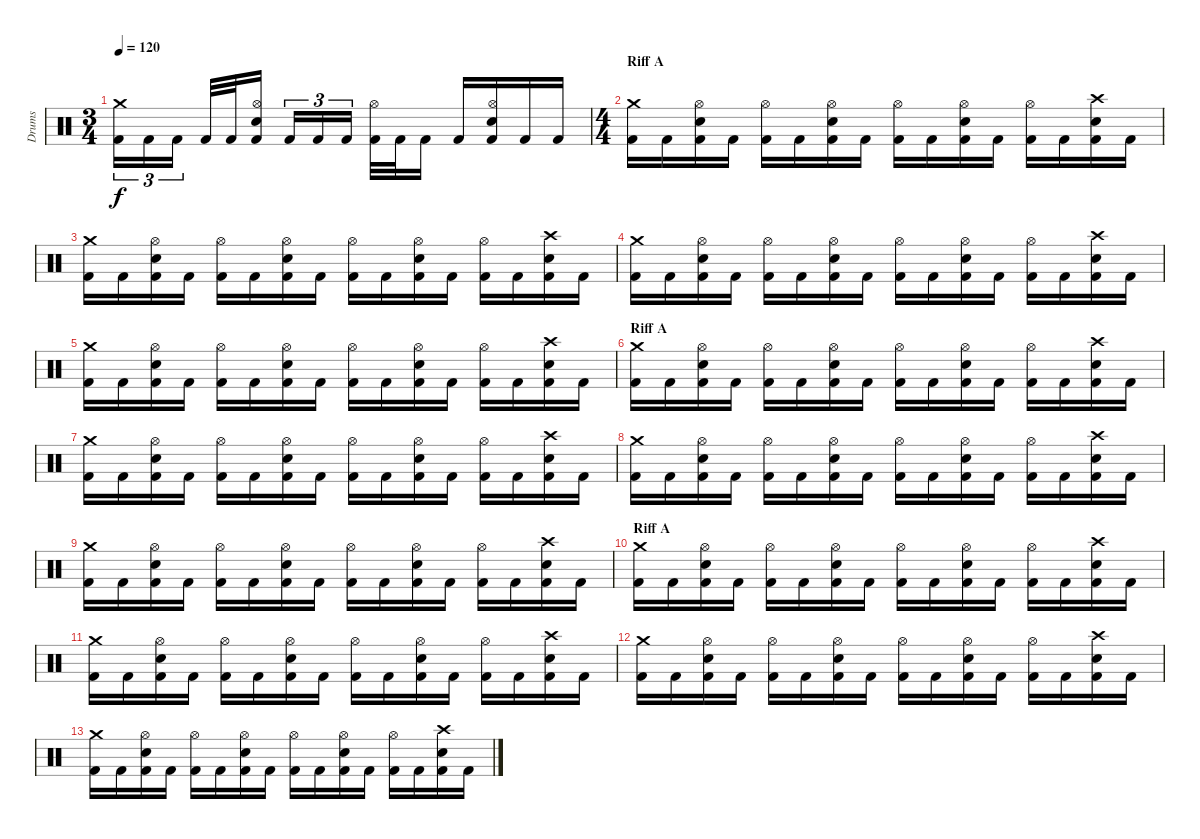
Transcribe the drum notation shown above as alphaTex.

\track ("Drums" "Drums") {instrument percussion}
\staff {score}
\articulation defaults
\ts (3 4)
\tempo 120
\clef neutral
\ks c
("Crash medium (hit)" "Kick (hit) 2").16{tu (3 2) dy f} "Kick (hit) 2".16{tu (3 2)} "Kick (hit) 2".16{tu (3 2)} "Kick (hit) 2".32 "Kick (hit) 2".32 ("Hi-Hat (open)" "Electric Snare (hit)" "Kick (hit) 2").16 "Kick (hit) 2".16{tu (3 2)} "Kick (hit) 2".16{tu (3 2)} "Kick (hit) 2".16{tu (3 2)} ("Hi-Hat (open)" "Kick (hit) 2").32 "Kick (hit) 2".32 "Kick (hit) 2".16 "Kick (hit) 2".16 ("Hi-Hat (open)" "Electric Snare (hit)" "Kick (hit) 2").16 "Kick (hit) 2".16 "Kick (hit) 2".16 |
\ts (4 4)
\section ("" "Riff A")
("Crash medium (hit)" "Kick (hit) 2").16 "Kick (hit) 2".16 ("Hi-Hat (open)" "Electric Snare (hit)" "Kick (hit) 2").16 "Kick (hit) 2".16 ("Hi-Hat (open)" "Kick (hit) 2").16 "Kick (hit) 2".16 ("Hi-Hat (open)" "Electric Snare (hit)" "Kick (hit) 2").16 "Kick (hit) 2".16 ("Hi-Hat (open)" "Kick (hit) 2").16 "Kick (hit) 2".16 ("Hi-Hat (open)" "Electric Snare (hit)" "Kick (hit) 2").16 "Kick (hit) 2".16 ("Hi-Hat (open)" "Kick (hit) 2").16 "Kick (hit) 2".16 ("Crash high (hit)" "Electric Snare (hit)" "Kick (hit) 2").16 "Kick (hit) 2".16 |
("Crash medium (hit)" "Kick (hit) 2").16 "Kick (hit) 2".16 ("Hi-Hat (open)" "Electric Snare (hit)" "Kick (hit) 2").16 "Kick (hit) 2".16 ("Hi-Hat (open)" "Kick (hit) 2").16 "Kick (hit) 2".16 ("Hi-Hat (open)" "Electric Snare (hit)" "Kick (hit) 2").16 "Kick (hit) 2".16 ("Hi-Hat (open)" "Kick (hit) 2").16 "Kick (hit) 2".16 ("Hi-Hat (open)" "Electric Snare (hit)" "Kick (hit) 2").16 "Kick (hit) 2".16 ("Hi-Hat (open)" "Kick (hit) 2").16 "Kick (hit) 2".16 ("Crash high (hit)" "Electric Snare (hit)" "Kick (hit) 2").16 "Kick (hit) 2".16 |
("Crash medium (hit)" "Kick (hit) 2").16 "Kick (hit) 2".16 ("Hi-Hat (open)" "Electric Snare (hit)" "Kick (hit) 2").16 "Kick (hit) 2".16 ("Hi-Hat (open)" "Kick (hit) 2").16 "Kick (hit) 2".16 ("Hi-Hat (open)" "Electric Snare (hit)" "Kick (hit) 2").16 "Kick (hit) 2".16 ("Hi-Hat (open)" "Kick (hit) 2").16 "Kick (hit) 2".16 ("Hi-Hat (open)" "Electric Snare (hit)" "Kick (hit) 2").16 "Kick (hit) 2".16 ("Hi-Hat (open)" "Kick (hit) 2").16 "Kick (hit) 2".16 ("Crash high (hit)" "Electric Snare (hit)" "Kick (hit) 2").16 "Kick (hit) 2".16 |
("Crash medium (hit)" "Kick (hit) 2").16 "Kick (hit) 2".16 ("Hi-Hat (open)" "Electric Snare (hit)" "Kick (hit) 2").16 "Kick (hit) 2".16 ("Hi-Hat (open)" "Kick (hit) 2").16 "Kick (hit) 2".16 ("Hi-Hat (open)" "Electric Snare (hit)" "Kick (hit) 2").16 "Kick (hit) 2".16 ("Hi-Hat (open)" "Kick (hit) 2").16 "Kick (hit) 2".16 ("Hi-Hat (open)" "Electric Snare (hit)" "Kick (hit) 2").16 "Kick (hit) 2".16 ("Hi-Hat (open)" "Kick (hit) 2").16 "Kick (hit) 2".16 ("Crash high (hit)" "Electric Snare (hit)" "Kick (hit) 2").16 "Kick (hit) 2".16 |
\section ("" "Riff A")
("Crash medium (hit)" "Kick (hit) 2").16 "Kick (hit) 2".16 ("Hi-Hat (open)" "Electric Snare (hit)" "Kick (hit) 2").16 "Kick (hit) 2".16 ("Hi-Hat (open)" "Kick (hit) 2").16 "Kick (hit) 2".16 ("Hi-Hat (open)" "Electric Snare (hit)" "Kick (hit) 2").16 "Kick (hit) 2".16 ("Hi-Hat (open)" "Kick (hit) 2").16 "Kick (hit) 2".16 ("Hi-Hat (open)" "Electric Snare (hit)" "Kick (hit) 2").16 "Kick (hit) 2".16 ("Hi-Hat (open)" "Kick (hit) 2").16 "Kick (hit) 2".16 ("Crash high (hit)" "Electric Snare (hit)" "Kick (hit) 2").16 "Kick (hit) 2".16 |
("Crash medium (hit)" "Kick (hit) 2").16{volume 10} "Kick (hit) 2".16 ("Hi-Hat (open)" "Electric Snare (hit)" "Kick (hit) 2").16 "Kick (hit) 2".16 ("Hi-Hat (open)" "Kick (hit) 2").16 "Kick (hit) 2".16 ("Hi-Hat (open)" "Electric Snare (hit)" "Kick (hit) 2").16 "Kick (hit) 2".16 ("Hi-Hat (open)" "Kick (hit) 2").16 "Kick (hit) 2".16 ("Hi-Hat (open)" "Electric Snare (hit)" "Kick (hit) 2").16 "Kick (hit) 2".16 ("Hi-Hat (open)" "Kick (hit) 2").16 "Kick (hit) 2".16 ("Crash high (hit)" "Electric Snare (hit)" "Kick (hit) 2").16 "Kick (hit) 2".16 |
("Crash medium (hit)" "Kick (hit) 2").16{volume 8} "Kick (hit) 2".16 ("Hi-Hat (open)" "Electric Snare (hit)" "Kick (hit) 2").16 "Kick (hit) 2".16 ("Hi-Hat (open)" "Kick (hit) 2").16 "Kick (hit) 2".16 ("Hi-Hat (open)" "Electric Snare (hit)" "Kick (hit) 2").16 "Kick (hit) 2".16 ("Hi-Hat (open)" "Kick (hit) 2").16 "Kick (hit) 2".16 ("Hi-Hat (open)" "Electric Snare (hit)" "Kick (hit) 2").16 "Kick (hit) 2".16 ("Hi-Hat (open)" "Kick (hit) 2").16 "Kick (hit) 2".16 ("Crash high (hit)" "Electric Snare (hit)" "Kick (hit) 2").16 "Kick (hit) 2".16 |
("Crash medium (hit)" "Kick (hit) 2").16{volume 4} "Kick (hit) 2".16 ("Hi-Hat (open)" "Electric Snare (hit)" "Kick (hit) 2").16 "Kick (hit) 2".16 ("Hi-Hat (open)" "Kick (hit) 2").16 "Kick (hit) 2".16 ("Hi-Hat (open)" "Electric Snare (hit)" "Kick (hit) 2").16 "Kick (hit) 2".16 ("Hi-Hat (open)" "Kick (hit) 2").16 "Kick (hit) 2".16 ("Hi-Hat (open)" "Electric Snare (hit)" "Kick (hit) 2").16 "Kick (hit) 2".16 ("Hi-Hat (open)" "Kick (hit) 2").16 "Kick (hit) 2".16 ("Crash high (hit)" "Electric Snare (hit)" "Kick (hit) 2").16 "Kick (hit) 2".16 |
\section ("" "Riff A")
("Crash medium (hit)" "Kick (hit) 2").16{volume 0} "Kick (hit) 2".16 ("Hi-Hat (open)" "Electric Snare (hit)" "Kick (hit) 2").16 "Kick (hit) 2".16 ("Hi-Hat (open)" "Kick (hit) 2").16 "Kick (hit) 2".16 ("Hi-Hat (open)" "Electric Snare (hit)" "Kick (hit) 2").16 "Kick (hit) 2".16 ("Hi-Hat (open)" "Kick (hit) 2").16 "Kick (hit) 2".16 ("Hi-Hat (open)" "Electric Snare (hit)" "Kick (hit) 2").16 "Kick (hit) 2".16 ("Hi-Hat (open)" "Kick (hit) 2").16 "Kick (hit) 2".16 ("Crash high (hit)" "Electric Snare (hit)" "Kick (hit) 2").16 "Kick (hit) 2".16 |
("Crash medium (hit)" "Kick (hit) 2").16 "Kick (hit) 2".16 ("Hi-Hat (open)" "Electric Snare (hit)" "Kick (hit) 2").16 "Kick (hit) 2".16 ("Hi-Hat (open)" "Kick (hit) 2").16 "Kick (hit) 2".16 ("Hi-Hat (open)" "Electric Snare (hit)" "Kick (hit) 2").16 "Kick (hit) 2".16 ("Hi-Hat (open)" "Kick (hit) 2").16 "Kick (hit) 2".16 ("Hi-Hat (open)" "Electric Snare (hit)" "Kick (hit) 2").16 "Kick (hit) 2".16 ("Hi-Hat (open)" "Kick (hit) 2").16 "Kick (hit) 2".16 ("Crash high (hit)" "Electric Snare (hit)" "Kick (hit) 2").16 "Kick (hit) 2".16 |
("Crash medium (hit)" "Kick (hit) 2").16 "Kick (hit) 2".16 ("Hi-Hat (open)" "Electric Snare (hit)" "Kick (hit) 2").16 "Kick (hit) 2".16 ("Hi-Hat (open)" "Kick (hit) 2").16 "Kick (hit) 2".16 ("Hi-Hat (open)" "Electric Snare (hit)" "Kick (hit) 2").16 "Kick (hit) 2".16 ("Hi-Hat (open)" "Kick (hit) 2").16 "Kick (hit) 2".16 ("Hi-Hat (open)" "Electric Snare (hit)" "Kick (hit) 2").16 "Kick (hit) 2".16 ("Hi-Hat (open)" "Kick (hit) 2").16 "Kick (hit) 2".16 ("Crash high (hit)" "Electric Snare (hit)" "Kick (hit) 2").16 "Kick (hit) 2".16 |
("Crash medium (hit)" "Kick (hit) 2").16 "Kick (hit) 2".16 ("Hi-Hat (open)" "Electric Snare (hit)" "Kick (hit) 2").16 "Kick (hit) 2".16 ("Hi-Hat (open)" "Kick (hit) 2").16 "Kick (hit) 2".16 ("Hi-Hat (open)" "Electric Snare (hit)" "Kick (hit) 2").16 "Kick (hit) 2".16 ("Hi-Hat (open)" "Kick (hit) 2").16 "Kick (hit) 2".16 ("Hi-Hat (open)" "Electric Snare (hit)" "Kick (hit) 2").16 "Kick (hit) 2".16 ("Hi-Hat (open)" "Kick (hit) 2").16 "Kick (hit) 2".16 ("Crash high (hit)" "Electric Snare (hit)" "Kick (hit) 2").16 "Kick (hit) 2".16
